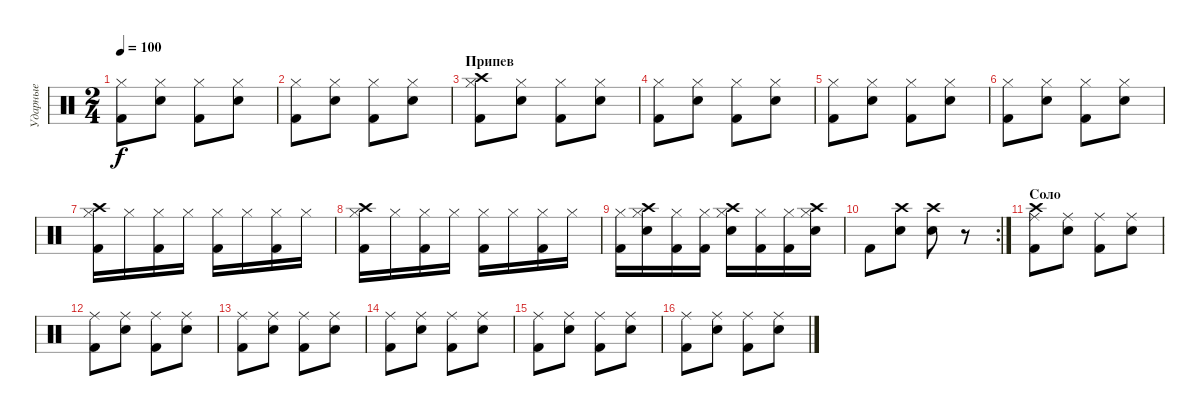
\track ("Ударные" "Ударные") {instrument percussion}
\staff {score}
\articulation defaults
\ts (2 4)
\tempo 100
\clef neutral
\ks c
("Hi-Hat (closed)" "Kick (hit) 2").8{dy f} ("Hi-Hat (closed)" "Electric Snare (hit)").8 ("Hi-Hat (closed)" "Kick (hit) 2").8 ("Hi-Hat (closed)" "Electric Snare (hit)").8 |
("Hi-Hat (closed)" "Kick (hit) 2").8 ("Hi-Hat (closed)" "Electric Snare (hit)").8 ("Hi-Hat (closed)" "Kick (hit) 2").8 ("Hi-Hat (closed)" "Electric Snare (hit)").8 |
\section ("" "Припев")
("Hi-Hat (closed)" "Kick (hit) 2" "Crash high (hit)").8 ("Hi-Hat (closed)" "Electric Snare (hit)").8 ("Hi-Hat (closed)" "Kick (hit) 2").8 ("Hi-Hat (closed)" "Electric Snare (hit)").8 |
("Hi-Hat (closed)" "Kick (hit) 2").8 ("Hi-Hat (closed)" "Electric Snare (hit)").8 ("Hi-Hat (closed)" "Kick (hit) 2").8 ("Hi-Hat (closed)" "Electric Snare (hit)").8 |
("Hi-Hat (closed)" "Kick (hit) 2").8 ("Hi-Hat (closed)" "Electric Snare (hit)").8 ("Hi-Hat (closed)" "Kick (hit) 2").8 ("Hi-Hat (closed)" "Electric Snare (hit)").8 |
("Hi-Hat (closed)" "Kick (hit) 2").8 ("Hi-Hat (closed)" "Electric Snare (hit)").8 ("Hi-Hat (closed)" "Kick (hit) 2").8 ("Hi-Hat (closed)" "Electric Snare (hit)").8 |
("Hi-Hat (closed)" "Kick (hit) 2" "Crash high (hit)").16 "Hi-Hat (closed)".16 ("Hi-Hat (closed)" "Kick (hit) 2").16 "Hi-Hat (closed)".16 ("Hi-Hat (closed)" "Kick (hit) 2").16 "Hi-Hat (closed)".16 ("Hi-Hat (closed)" "Kick (hit) 2").16 "Hi-Hat (closed)".16 |
("Hi-Hat (closed)" "Kick (hit) 2" "Crash high (hit)").16 "Hi-Hat (closed)".16 ("Hi-Hat (closed)" "Kick (hit) 2").16 "Hi-Hat (closed)".16 ("Hi-Hat (closed)" "Kick (hit) 2").16 "Hi-Hat (closed)".16 ("Hi-Hat (closed)" "Kick (hit) 2").16 "Hi-Hat (closed)".16 |
("Hi-Hat (closed)" "Kick (hit) 2").16 ("Hi-Hat (closed)" "Electric Snare (hit)" "Crash high (hit)").16 ("Hi-Hat (closed)" "Kick (hit) 2").16 ("Hi-Hat (closed)" "Kick (hit) 2").16 ("Hi-Hat (closed)" "Electric Snare (hit)" "Crash high (hit)").16 ("Hi-Hat (closed)" "Kick (hit) 2").16 ("Hi-Hat (closed)" "Kick (hit) 2").16 ("Hi-Hat (closed)" "Electric Snare (hit)" "Crash high (hit)").16 |
\rc 2 "Kick (hit) 2".8
("Electric Snare (hit)" "Crash high (hit)").8 ("Electric Snare (hit)" "Crash high (hit)").8 r.8 |
\section ("" "Соло")
("Ride (middle)" "Kick (hit) 2" "Crash high (hit)").8 ("Ride (middle)" "Electric Snare (hit)").8 ("Ride (middle)" "Kick (hit) 2").8 ("Ride (middle)" "Electric Snare (hit)").8 |
("Ride (middle)" "Kick (hit) 2").8 ("Ride (middle)" "Electric Snare (hit)").8 ("Ride (middle)" "Kick (hit) 2").8 ("Ride (middle)" "Electric Snare (hit)").8 |
("Ride (middle)" "Kick (hit) 2").8 ("Ride (middle)" "Electric Snare (hit)").8 ("Ride (middle)" "Kick (hit) 2").8 ("Ride (middle)" "Electric Snare (hit)").8 |
("Ride (middle)" "Kick (hit) 2").8 ("Ride (middle)" "Electric Snare (hit)").8 ("Ride (middle)" "Kick (hit) 2").8 ("Ride (middle)" "Electric Snare (hit)").8 |
("Ride (middle)" "Kick (hit) 2").8 ("Ride (middle)" "Electric Snare (hit)").8 ("Ride (middle)" "Kick (hit) 2").8 ("Ride (middle)" "Electric Snare (hit)").8 |
("Ride (middle)" "Kick (hit) 2").8 ("Ride (middle)" "Electric Snare (hit)").8 ("Ride (middle)" "Kick (hit) 2").8 ("Ride (middle)" "Electric Snare (hit)").8
